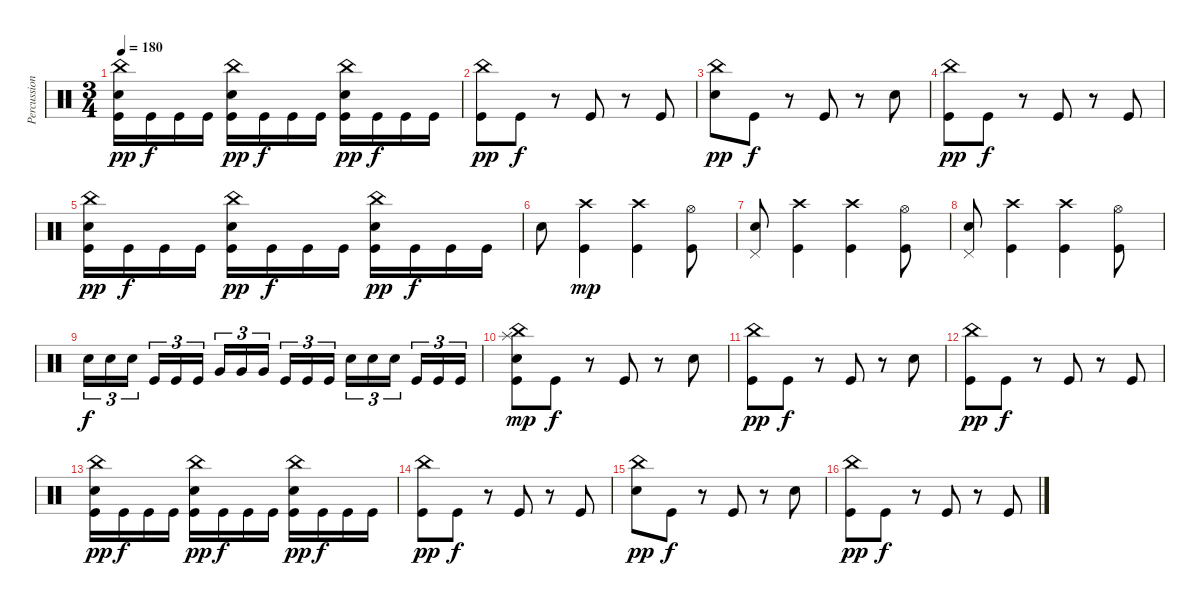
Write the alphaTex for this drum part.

\track ("Percussion" "Percussion") {instrument percussion}
\staff {score}
\articulation defaults
\ts (3 4)
\tempo 180
\clef neutral
\ks c
("China (hit)" "Electric Snare (hit)" "Kick (hit)").16{dy pp} "Kick (hit)".16{dy f} "Kick (hit)".16 "Kick (hit)".16 ("China (hit)" "Electric Snare (hit)" "Kick (hit)").16{dy pp} "Kick (hit)".16{dy f} "Kick (hit)".16 "Kick (hit)".16 ("China (hit)" "Electric Snare (hit)" "Kick (hit)").16{dy pp} "Kick (hit)".16{dy f} "Kick (hit)".16 "Kick (hit)".16 |
("China (hit)" "Kick (hit)").8{dy pp} "Kick (hit)".8{dy f} r.8 "Kick (hit)".8 r.8 "Kick (hit)".8 |
("China (hit)" "Electric Snare (hit)").8{dy pp} "Kick (hit)".8{dy f} r.8 "Kick (hit)".8 r.8 "Electric Snare (hit)".8 |
("China (hit)" "Kick (hit)").8{dy pp} "Kick (hit)".8{dy f} r.8 "Kick (hit)".8 r.8 "Kick (hit)".8 |
("China (hit)" "Electric Snare (hit)" "Kick (hit)").16{dy pp} "Kick (hit)".16{dy f} "Kick (hit)".16 "Kick (hit)".16 ("China (hit)" "Electric Snare (hit)" "Kick (hit)").16{dy pp} "Kick (hit)".16{dy f} "Kick (hit)".16 "Kick (hit)".16 ("China (hit)" "Electric Snare (hit)" "Kick (hit)").16{dy pp} "Kick (hit)".16{dy f} "Kick (hit)".16 "Kick (hit)".16 |
"Electric Snare (hit)".8 ("Crash high (hit)" "Kick (hit)").4{dy mp} ("Crash high (hit)" "Kick (hit)").4 ("Hi-Hat (open)" "Kick (hit)").8 |
("Pedal Hi-Hat (hit)" "Electric Snare (hit)").8 ("Crash high (hit)" "Kick (hit)").4 ("Crash high (hit)" "Kick (hit)").4 ("Hi-Hat (open)" "Kick (hit)").8 |
("Pedal Hi-Hat (hit)" "Electric Snare (hit)").8 ("Crash high (hit)" "Kick (hit)").4 ("Crash high (hit)" "Kick (hit)").4 ("Hi-Hat (open)" "Kick (hit)").8 |
"Electric Snare (hit)".16{tu (3 2) dy f} "Electric Snare (hit)".16{tu (3 2)} "Electric Snare (hit)".16{tu (3 2) beam splitsecondary} "Kick (hit)".16{tu (3 2)} "Kick (hit)".16{tu (3 2)} "Kick (hit)".16{tu (3 2)} "Very Low Tom (hit)".16{tu (3 2)} "Very Low Tom (hit)".16{tu (3 2)} "Very Low Tom (hit)".16{tu (3 2) beam splitsecondary} "Kick (hit)".16{tu (3 2)} "Kick (hit)".16{tu (3 2)} "Kick (hit)".16{tu (3 2)} "Electric Snare (hit)".16{tu (3 2)} "Electric Snare (hit)".16{tu (3 2)} "Electric Snare (hit)".16{tu (3 2) beam splitsecondary} "Kick (hit)".16{tu (3 2)} "Kick (hit)".16{tu (3 2)} "Kick (hit)".16{tu (3 2)} |
("China (hit)" "Splash (hit)" "Electric Snare (hit)" "Kick (hit)").8{dy mp} "Kick (hit)".8{dy f} r.8 "Kick (hit)".8 r.8 "Electric Snare (hit)".8 |
("China (hit)" "Kick (hit)").8{dy pp} "Kick (hit)".8{dy f} r.8 "Kick (hit)".8 r.8 "Electric Snare (hit)".8 |
("China (hit)" "Kick (hit)").8{dy pp} "Kick (hit)".8{dy f} r.8 "Kick (hit)".8 r.8 "Kick (hit)".8 |
("China (hit)" "Electric Snare (hit)" "Kick (hit)").16{dy pp} "Kick (hit)".16{dy f} "Kick (hit)".16 "Kick (hit)".16 ("China (hit)" "Electric Snare (hit)" "Kick (hit)").16{dy pp} "Kick (hit)".16{dy f} "Kick (hit)".16 "Kick (hit)".16 ("China (hit)" "Electric Snare (hit)" "Kick (hit)").16{dy pp} "Kick (hit)".16{dy f} "Kick (hit)".16 "Kick (hit)".16 |
("China (hit)" "Kick (hit)").8{dy pp} "Kick (hit)".8{dy f} r.8 "Kick (hit)".8 r.8 "Kick (hit)".8 |
("China (hit)" "Electric Snare (hit)").8{dy pp} "Kick (hit)".8{dy f} r.8 "Kick (hit)".8 r.8 "Electric Snare (hit)".8 |
("China (hit)" "Kick (hit)").8{dy pp} "Kick (hit)".8{dy f} r.8 "Kick (hit)".8 r.8 "Kick (hit)".8
